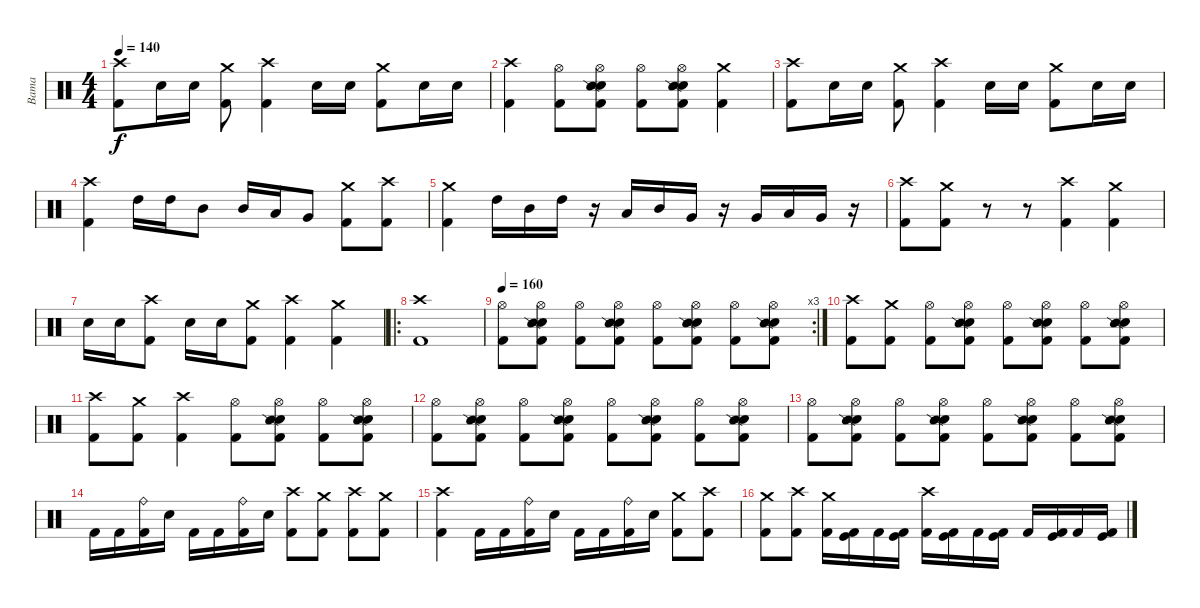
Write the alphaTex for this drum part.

\track ("Bama" "Bama") {instrument percussion}
\staff {score}
\articulation defaults
\ts (4 4)
\tempo 140
\clef neutral
\ks c
("Crash high (hit)" "Kick (hit) 2").8{dy f} "Electric Snare (hit)".16 "Electric Snare (hit)".16 ("Crash medium (hit)" "Kick (hit) 2").8 ("Crash high (hit)" "Kick (hit) 2").4 "Electric Snare (hit)".16 "Electric Snare (hit)".16 ("Crash medium (hit)" "Kick (hit) 2").8 "Electric Snare (hit)".16 "Electric Snare (hit)".16 |
("Crash high (hit)" "Kick (hit) 2").4 ("Hi-Hat (open)" "Kick (hit) 2").8 ("Hi-Hat (open)" "Electric Snare (hit)" "Snare (side stick) 2" "Kick (hit) 2").8 ("Hi-Hat (open)" "Kick (hit) 2").8 ("Hi-Hat (open)" "Electric Snare (hit)" "Snare (side stick) 2" "Kick (hit) 2").8 ("Crash medium (hit)" "Kick (hit) 2").4 |
("Crash high (hit)" "Kick (hit) 2").8 "Electric Snare (hit)".16 "Electric Snare (hit)".16 ("Crash medium (hit)" "Kick (hit) 2").8 ("Crash high (hit)" "Kick (hit) 2").4 "Electric Snare (hit)".16 "Electric Snare (hit)".16 ("Crash medium (hit)" "Kick (hit) 2").8 "Electric Snare (hit)".16 "Electric Snare (hit)".16 |
("Crash high (hit)" "Kick (hit) 2").4 "High Tom (hit)".16 "High Tom (hit)".16 "Mid Tom (hit)".8 "Mid Tom (hit)".16 "Low Tom (hit)".16 "Very Low Tom (hit)".8 ("Crash medium (hit)" "Kick (hit) 2").8 ("Crash high (hit)" "Kick (hit) 2").8 |
("Crash medium (hit)" "Kick (hit) 2").4 "High Tom (hit)".16 "Mid Tom (hit)".16 "High Tom (hit)".16 r.16 "Low Tom (hit)".16 "Mid Tom (hit)".16 "Very Low Tom (hit)".16 r.16 "Very Low Tom (hit)".16 "Low Floor Tom (hit)".16 "Very Low Tom (hit)".16 r.16 |
("Crash high (hit)" "Kick (hit) 2").8 ("Crash medium (hit)" "Kick (hit) 2").8 r.8 r.8 ("Crash high (hit)" "Kick (hit) 2").4 ("Crash medium (hit)" "Kick (hit) 2").4 |
"Electric Snare (hit)".16 "Electric Snare (hit)".16 ("Crash high (hit)" "Kick (hit) 2").8 "Electric Snare (hit)".16 "Electric Snare (hit)".16 ("Crash medium (hit)" "Kick (hit) 2").8 ("Crash high (hit)" "Kick (hit) 2").4 ("Crash medium (hit)" "Kick (hit) 2").4 |
\ro
("Crash high (hit)" "Kick (hit) 2").1 |
\rc 3
\tempo 160
("Hi-Hat (open)" "Kick (hit) 2").8 ("Hi-Hat (open)" "Electric Snare (hit)" "Snare (side stick) 2" "Kick (hit) 2").8 ("Hi-Hat (open)" "Kick (hit) 2").8 ("Hi-Hat (open)" "Electric Snare (hit)" "Snare (side stick) 2" "Kick (hit) 2").8 ("Hi-Hat (open)" "Kick (hit) 2").8 ("Hi-Hat (open)" "Electric Snare (hit)" "Snare (side stick) 2" "Kick (hit) 2").8 ("Hi-Hat (open)" "Kick (hit) 2").8 ("Hi-Hat (open)" "Electric Snare (hit)" "Snare (side stick) 2" "Kick (hit) 2").8 |
("Crash high (hit)" "Kick (hit) 2").8 ("Crash medium (hit)" "Kick (hit) 2").8 ("Hi-Hat (open)" "Kick (hit) 2").8 ("Hi-Hat (open)" "Electric Snare (hit)" "Snare (side stick) 2" "Kick (hit) 2").8 ("Hi-Hat (open)" "Kick (hit) 2").8 ("Hi-Hat (open)" "Electric Snare (hit)" "Snare (side stick) 2" "Kick (hit) 2").8 ("Hi-Hat (open)" "Kick (hit) 2").8 ("Hi-Hat (open)" "Electric Snare (hit)" "Snare (side stick) 2" "Kick (hit) 2").8 |
("Crash high (hit)" "Kick (hit) 2").8 ("Crash medium (hit)" "Kick (hit) 2").8 ("Crash high (hit)" "Kick (hit) 2").4 ("Hi-Hat (open)" "Kick (hit) 2").8 ("Hi-Hat (open)" "Electric Snare (hit)" "Snare (side stick) 2" "Kick (hit) 2").8 ("Hi-Hat (open)" "Kick (hit) 2").8 ("Hi-Hat (open)" "Electric Snare (hit)" "Snare (side stick) 2" "Kick (hit) 2").8 |
("Hi-Hat (open)" "Kick (hit) 2").8 ("Hi-Hat (open)" "Electric Snare (hit)" "Snare (side stick) 2" "Kick (hit) 2").8 ("Hi-Hat (open)" "Kick (hit) 2").8 ("Hi-Hat (open)" "Electric Snare (hit)" "Snare (side stick) 2" "Kick (hit) 2").8 ("Hi-Hat (open)" "Kick (hit) 2").8 ("Hi-Hat (open)" "Electric Snare (hit)" "Snare (side stick) 2" "Kick (hit) 2").8 ("Hi-Hat (open)" "Kick (hit) 2").8 ("Hi-Hat (open)" "Electric Snare (hit)" "Snare (side stick) 2" "Kick (hit) 2").8 |
("Hi-Hat (open)" "Kick (hit) 2").8 ("Hi-Hat (open)" "Electric Snare (hit)" "Snare (side stick) 2" "Kick (hit) 2").8 ("Hi-Hat (open)" "Kick (hit) 2").8 ("Hi-Hat (open)" "Electric Snare (hit)" "Snare (side stick) 2" "Kick (hit) 2").8 ("Hi-Hat (open)" "Kick (hit) 2").8 ("Hi-Hat (open)" "Electric Snare (hit)" "Snare (side stick) 2" "Kick (hit) 2").8 ("Hi-Hat (open)" "Kick (hit) 2").8 ("Hi-Hat (open)" "Electric Snare (hit)" "Snare (side stick) 2" "Kick (hit) 2").8 |
"Kick (hit) 2".16 "Kick (hit) 2".16 ("Ride (bell)" "Kick (hit) 2").16 "Electric Snare (hit)".16 "Kick (hit) 2".16 "Kick (hit) 2".16 ("Ride (bell)" "Kick (hit) 2").16 "Electric Snare (hit)".16 ("Crash high (hit)" "Kick (hit) 2").8 ("Crash medium (hit)" "Kick (hit) 2").8 ("Crash high (hit)" "Kick (hit) 2").8 ("Crash medium (hit)" "Kick (hit) 2").8 |
("Crash high (hit)" "Kick (hit) 2").4 "Kick (hit) 2".16 "Kick (hit) 2".16 ("Ride (bell)" "Kick (hit) 2").16 "Electric Snare (hit)".16 "Kick (hit) 2".16 "Kick (hit) 2".16 ("Ride (bell)" "Kick (hit) 2").16 "Electric Snare (hit)".16 ("Crash medium (hit)" "Kick (hit) 2").8 ("Crash high (hit)" "Kick (hit) 2").8 |
("Crash medium (hit)" "Kick (hit) 2").8 ("Crash high (hit)" "Kick (hit) 2").8 ("Crash medium (hit)" "Kick (hit) 2").16 ("Kick (hit)" "Kick (hit) 2").16 "Kick (hit) 2".16 ("Kick (hit)" "Kick (hit) 2").16 ("Crash high (hit)" "Kick (hit) 2").16 ("Kick (hit)" "Kick (hit) 2").16 "Kick (hit) 2".16 ("Kick (hit)" "Kick (hit) 2").16 "Kick (hit) 2".16 ("Kick (hit)" "Kick (hit) 2").16 "Kick (hit) 2".16 ("Kick (hit)" "Kick (hit) 2").16
